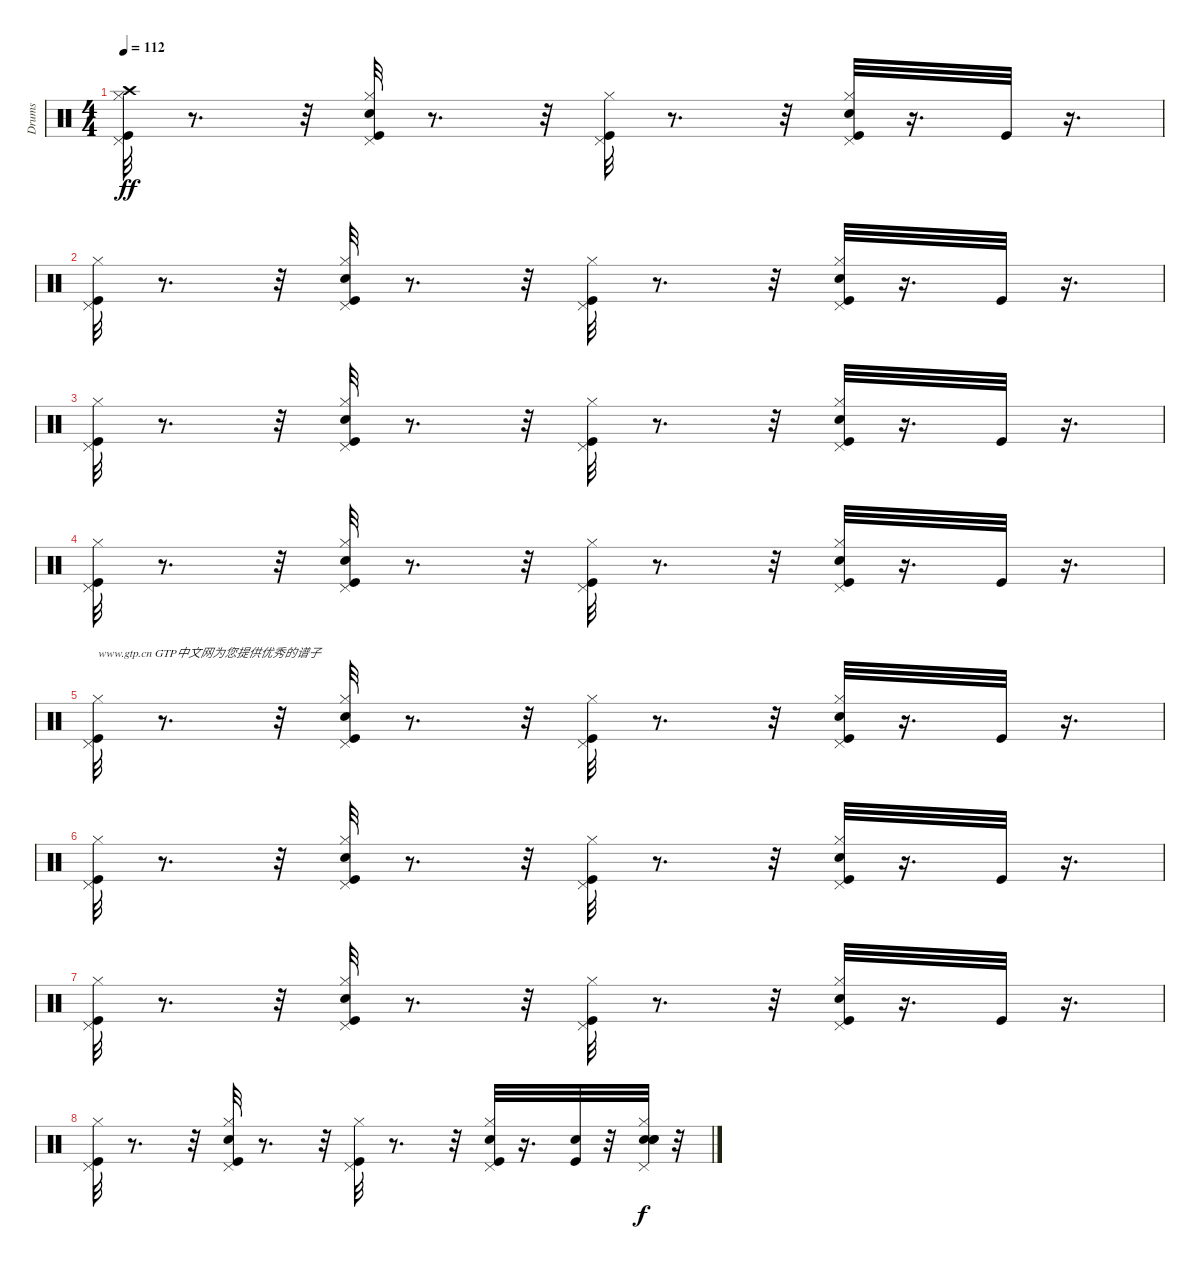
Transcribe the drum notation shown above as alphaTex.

\track ("Drums" "Drums") {instrument percussion}
\staff {score}
\articulation defaults
\ts (4 4)
\tempo 112
\clef neutral
\ks c
("Kick (hit)" "Pedal Hi-Hat (hit)" "Hi-Hat (closed)" "Crash high (hit)").32{dy ff} r.8{d} r.32 ("Kick (hit)" "Hi-Hat (closed)" "Pedal Hi-Hat (hit)" "Snare (hit) 2").32 r.8{d} r.32 ("Pedal Hi-Hat (hit)" "Kick (hit)" "Hi-Hat (closed)").32 r.8{d} r.32 ("Kick (hit)" "Hi-Hat (closed)" "Pedal Hi-Hat (hit)" "Snare (hit) 2").32 r.16{d} "Kick (hit)".32 r.16{d} |
("Pedal Hi-Hat (hit)" "Hi-Hat (closed)" "Kick (hit)").32 r.8{d} r.32 ("Pedal Hi-Hat (hit)" "Hi-Hat (closed)" "Snare (hit) 2" "Kick (hit)").32 r.8{d} r.32 ("Hi-Hat (closed)" "Kick (hit)" "Pedal Hi-Hat (hit)").32 r.8{d} r.32 ("Hi-Hat (closed)" "Kick (hit)" "Snare (hit) 2" "Pedal Hi-Hat (hit)").32 r.16{d} "Kick (hit)".32 r.16{d} |
("Kick (hit)" "Hi-Hat (closed)" "Pedal Hi-Hat (hit)").32 r.8{d} r.32 ("Pedal Hi-Hat (hit)" "Snare (hit) 2" "Hi-Hat (closed)" "Kick (hit)").32 r.8{d} r.32 ("Hi-Hat (closed)" "Kick (hit)" "Pedal Hi-Hat (hit)").32 r.8{d} r.32 ("Snare (hit) 2" "Pedal Hi-Hat (hit)" "Hi-Hat (closed)" "Kick (hit)").32 r.16{d} "Kick (hit)".32 r.16{d} |
("Kick (hit)" "Hi-Hat (closed)" "Pedal Hi-Hat (hit)").32 r.8{d} r.32 ("Kick (hit)" "Hi-Hat (closed)" "Snare (hit) 2" "Pedal Hi-Hat (hit)").32 r.8{d} r.32 ("Pedal Hi-Hat (hit)" "Kick (hit)" "Hi-Hat (closed)").32 r.8{d} r.32 ("Pedal Hi-Hat (hit)" "Snare (hit) 2" "Hi-Hat (closed)" "Kick (hit)").32 r.16{d} "Kick (hit)".32 r.16{d} |
("Pedal Hi-Hat (hit)" "Kick (hit)" "Hi-Hat (closed)").32{txt "www.gtp.cn GTP中文网为您提供优秀的谱子"} r.8{d} r.32 ("Kick (hit)" "Pedal Hi-Hat (hit)" "Snare (hit) 2" "Hi-Hat (closed)").32 r.8{d} r.32 ("Hi-Hat (closed)" "Kick (hit)" "Pedal Hi-Hat (hit)").32 r.8{d} r.32 ("Pedal Hi-Hat (hit)" "Kick (hit)" "Hi-Hat (closed)" "Snare (hit) 2").32 r.16{d} "Kick (hit)".32 r.16{d} |
("Pedal Hi-Hat (hit)" "Kick (hit)" "Hi-Hat (closed)").32 r.8{d} r.32 ("Kick (hit)" "Hi-Hat (closed)" "Pedal Hi-Hat (hit)" "Snare (hit) 2").32 r.8{d} r.32 ("Kick (hit)" "Hi-Hat (closed)" "Pedal Hi-Hat (hit)").32 r.8{d} r.32 ("Kick (hit)" "Hi-Hat (closed)" "Snare (hit) 2" "Pedal Hi-Hat (hit)").32 r.16{d} "Kick (hit)".32 r.16{d} |
("Pedal Hi-Hat (hit)" "Hi-Hat (closed)" "Kick (hit)").32 r.8{d} r.32 ("Kick (hit)" "Pedal Hi-Hat (hit)" "Hi-Hat (closed)" "Snare (hit) 2").32 r.8{d} r.32 ("Hi-Hat (closed)" "Kick (hit)" "Pedal Hi-Hat (hit)").32 r.8{d} r.32 ("Hi-Hat (closed)" "Pedal Hi-Hat (hit)" "Kick (hit)" "Snare (hit) 2").32 r.16{d} "Kick (hit)".32 r.16{d} |
("Hi-Hat (closed)" "Pedal Hi-Hat (hit)" "Kick (hit)").32 r.8{d} r.32 ("Hi-Hat (closed)" "Pedal Hi-Hat (hit)" "Snare (hit) 2" "Kick (hit)").32 r.8{d} r.32 ("Pedal Hi-Hat (hit)" "Hi-Hat (closed)" "Kick (hit)").32 r.8{d} r.32 ("Hi-Hat (closed)" "Snare (hit) 2" "Kick (hit)" "Pedal Hi-Hat (hit)").32 r.16{d} ("Kick (hit)" "Snare (hit) 2").32 r.32 ("Hi-Hat (closed)" "Snare (hit) 2" "Snare (hit) 2" "Snare (hit) 2" "Pedal Hi-Hat (hit)").32{dy f} r.32
